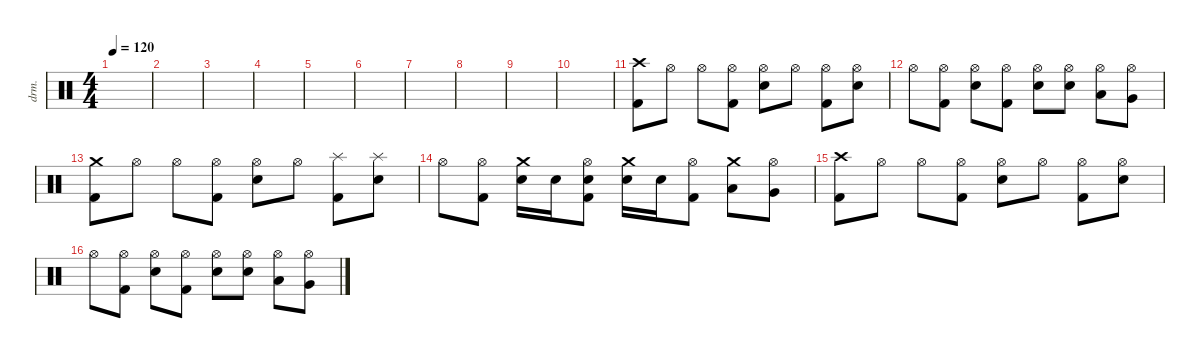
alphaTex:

\defaultSystemsLayout 4
\hideDynamics
\bracketExtendMode nobrackets
\track ("Drumkit" "drm.") {instrument percussion}
\staff {score}
\articulation defaults
\ts (4 4)
\tempo 120
\clef neutral
\ks c
|
|
|
|
|
|
|
|
|
|
("Crash high (hit)" "Kick (hit) 2").8{beam Down} "Hi-Hat (open)".8{beam Down} "Hi-Hat (open)".8{beam Down} ("Hi-Hat (open)" "Kick (hit) 2").8{beam Down} ("Hi-Hat (open)" "Snare (hit) 2").8{beam Down} "Hi-Hat (open)".8{beam Down} ("Hi-Hat (open)" "Kick (hit) 2").8{beam Down} ("Hi-Hat (open)" "Snare (hit) 2").8{beam Down} |
"Hi-Hat (open)".8{beam Down} ("Hi-Hat (open)" "Kick (hit) 2").8{beam Down} ("Hi-Hat (open)" "Snare (hit) 2").8{beam Down} ("Hi-Hat (open)" "Kick (hit) 2").8{beam Down} ("Hi-Hat (open)" "Snare (hit) 2").8{beam Down} ("Hi-Hat (open)" "Snare (hit) 2").8{beam Down} ("Hi-Hat (open)" "Low Tom (hit)").8{beam Down} ("Hi-Hat (open)" "Very Low Tom (hit)").8{beam Down} |
("Crash medium (hit)" "Kick (hit) 2").8{beam Down} "Hi-Hat (open)".8{beam Down} "Hi-Hat (open)".8{beam Down} ("Hi-Hat (open)" "Kick (hit) 2").8{beam Down} ("Hi-Hat (open)" "Snare (hit) 2").8{beam Down} "Hi-Hat (open)".8{beam Down} ("Splash (hit)" "Kick (hit) 2").8{beam Down} ("Splash (hit)" "Snare (hit) 2").8{beam Down} |
"Hi-Hat (open)".8{beam Down} ("Hi-Hat (open)" "Kick (hit) 2").8{beam Down} ("Crash medium (hit)" "Snare (hit) 2").16{beam Down} "Snare (hit) 2".16{beam Down} ("Hi-Hat (open)" "Kick (hit) 2" "Snare (hit) 2").8{beam Down} ("Crash medium (hit)" "Snare (hit) 2").16{beam Down} "Snare (hit) 2".16{beam Down} ("Hi-Hat (open)" "Kick (hit) 2").8{beam Down} ("Crash medium (hit)" "Low Tom (hit)").8{beam Down} ("Hi-Hat (open)" "Very Low Tom (hit)").8{beam Down} |
("Crash high (hit)" "Kick (hit) 2").8{beam Down} "Hi-Hat (open)".8{beam Down} "Hi-Hat (open)".8{beam Down} ("Hi-Hat (open)" "Kick (hit) 2").8{beam Down} ("Hi-Hat (open)" "Snare (hit) 2").8{beam Down} "Hi-Hat (open)".8{beam Down} ("Hi-Hat (open)" "Kick (hit) 2").8{beam Down} ("Hi-Hat (open)" "Snare (hit) 2").8{beam Down} |
"Hi-Hat (open)".8{beam Down} ("Hi-Hat (open)" "Kick (hit) 2").8{beam Down} ("Hi-Hat (open)" "Snare (hit) 2").8{beam Down} ("Hi-Hat (open)" "Kick (hit) 2").8{beam Down} ("Hi-Hat (open)" "Snare (hit) 2").8{beam Down} ("Hi-Hat (open)" "Snare (hit) 2").8{beam Down} ("Hi-Hat (open)" "Low Tom (hit)").8{beam Down} ("Hi-Hat (open)" "Very Low Tom (hit)").8{beam Down}
